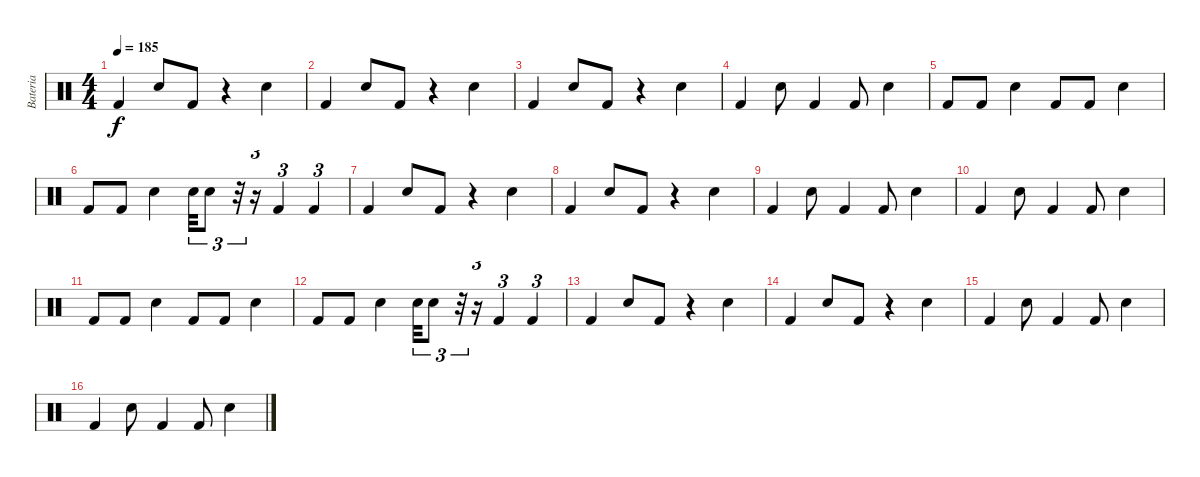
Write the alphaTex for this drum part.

\track ("Bateria" "Bateria") {instrument percussion}
\staff {score}
\articulation defaults
\ts (4 4)
\tempo 185
\clef neutral
\ks c "Kick (hit) 2".4{dy f} "Snare (hit) 2".8 "Kick (hit) 2".8
r.4 "Snare (hit) 2".4 |
"Kick (hit) 2".4 "Snare (hit) 2".8 "Kick (hit) 2".8 r.4 "Snare (hit) 2".4 |
"Kick (hit) 2".4 "Snare (hit) 2".8 "Kick (hit) 2".8 r.4 "Snare (hit) 2".4 |
"Kick (hit) 2".4 "Snare (hit) 2".8 "Kick (hit) 2".4 "Kick (hit) 2".8 "Snare (hit) 2".4 |
"Kick (hit) 2".8 "Kick (hit) 2".8 "Snare (hit) 2".4 "Kick (hit) 2".8 "Kick (hit) 2".8 "Snare (hit) 2".4 |
"Kick (hit) 2".8 "Kick (hit) 2".8 "Snare (hit) 2".4 "Snare (hit) 2".32{tu (3 2)} "Snare (hit) 2".8{tu (3 2)} r.32{tu (3 2)} r.16{tu (3 2)} "Kick (hit) 2".4{tu (3 2)} "Kick (hit) 2".4{tu (3 2)} |
"Kick (hit) 2".4 "Snare (hit) 2".8 "Kick (hit) 2".8 r.4 "Snare (hit) 2".4 |
"Kick (hit) 2".4 "Snare (hit) 2".8 "Kick (hit) 2".8 r.4 "Snare (hit) 2".4 |
"Kick (hit) 2".4 "Snare (hit) 2".8 "Kick (hit) 2".4 "Kick (hit) 2".8 "Snare (hit) 2".4 |
"Kick (hit) 2".4 "Snare (hit) 2".8 "Kick (hit) 2".4 "Kick (hit) 2".8 "Snare (hit) 2".4 |
"Kick (hit) 2".8 "Kick (hit) 2".8 "Snare (hit) 2".4 "Kick (hit) 2".8 "Kick (hit) 2".8 "Snare (hit) 2".4 |
"Kick (hit) 2".8 "Kick (hit) 2".8 "Snare (hit) 2".4 "Snare (hit) 2".32{tu (3 2)} "Snare (hit) 2".8{tu (3 2)} r.32{tu (3 2)} r.16{tu (3 2)} "Kick (hit) 2".4{tu (3 2)} "Kick (hit) 2".4{tu (3 2)} |
"Kick (hit) 2".4 "Snare (hit) 2".8 "Kick (hit) 2".8 r.4 "Snare (hit) 2".4 |
"Kick (hit) 2".4 "Snare (hit) 2".8 "Kick (hit) 2".8 r.4 "Snare (hit) 2".4 |
"Kick (hit) 2".4 "Snare (hit) 2".8 "Kick (hit) 2".4 "Kick (hit) 2".8 "Snare (hit) 2".4 |
"Kick (hit) 2".4 "Snare (hit) 2".8 "Kick (hit) 2".4 "Kick (hit) 2".8 "Snare (hit) 2".4
